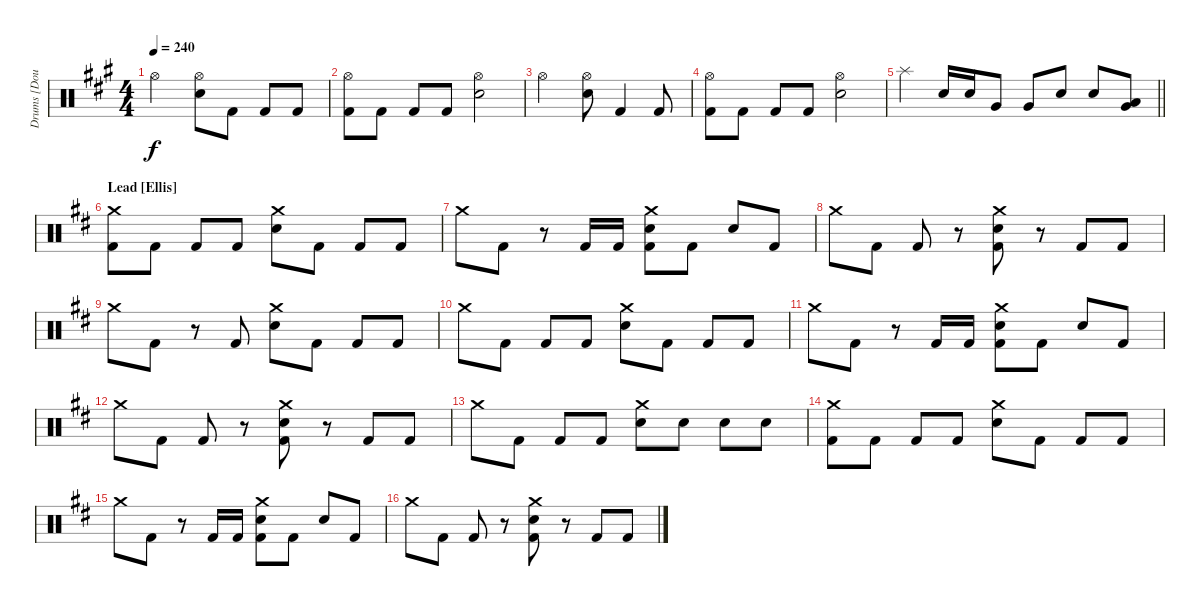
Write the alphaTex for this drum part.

\track ("Drums [Doug Anderson]" "Drums [Dou") {instrument percussion}
\staff {score}
\articulation defaults
\ts (4 4)
\tempo 240
\clef neutral
\ks f#minor "Hi-Hat (open)".2{dy f}
("Hi-Hat (open)" "Electric Snare (hit)").8 "Kick (hit) 2".8 "Kick (hit) 2".8 "Kick (hit) 2".8 |
("Hi-Hat (open)" "Kick (hit) 2").8 "Kick (hit) 2".8 "Kick (hit) 2".8 "Kick (hit) 2".8 ("Hi-Hat (open)" "Electric Snare (hit)").2 |
"Hi-Hat (open)".2 ("Hi-Hat (open)" "Electric Snare (hit)").8 "Kick (hit) 2".4 "Kick (hit) 2".8 |
("Hi-Hat (open)" "Kick (hit) 2").8 "Kick (hit) 2".8 "Kick (hit) 2".8 "Kick (hit) 2".8 ("Hi-Hat (open)" "Electric Snare (hit)").2 |
\barLineRight lightlight "Splash (hit)".4 "Electric Snare (hit)".16 "Electric Snare (hit)".16 "Very Low Tom (hit)".8 "Very Low Tom (hit)".8 "Electric Snare (hit)".8 "Electric Snare (hit)".8
("Low Tom (hit)" "Very Low Tom (hit)").8 |
\section ("" "Lead [Ellis]")
\ks bminor
("Crash medium (hit)" "Kick (hit) 2").8 "Kick (hit) 2".8 "Kick (hit) 2".8 "Kick (hit) 2".8 ("Crash medium (hit)" "Electric Snare (hit)").8 "Kick (hit) 2".8 "Kick (hit) 2".8 "Kick (hit) 2".8 |
"Crash medium (hit)".8 "Kick (hit) 2".8 r.8 "Kick (hit) 2".16 "Kick (hit) 2".16 ("Crash medium (hit)" "Electric Snare (hit)" "Kick (hit) 2").8 "Kick (hit) 2".8 "Electric Snare (hit)".8 "Kick (hit) 2".8 |
"Crash medium (hit)".8 "Kick (hit) 2".8 "Kick (hit) 2".8 r.8 ("Crash medium (hit)" "Electric Snare (hit)" "Kick (hit) 2").8 r.8 "Kick (hit) 2".8 "Kick (hit) 2".8 |
"Crash medium (hit)".8 "Kick (hit) 2".8 r.8 "Kick (hit) 2".8 ("Crash medium (hit)" "Electric Snare (hit)").8 "Kick (hit) 2".8 "Kick (hit) 2".8 "Kick (hit) 2".8 |
"Crash medium (hit)".8 "Kick (hit) 2".8 "Kick (hit) 2".8 "Kick (hit) 2".8 ("Crash medium (hit)" "Electric Snare (hit)").8 "Kick (hit) 2".8 "Kick (hit) 2".8 "Kick (hit) 2".8 |
"Crash medium (hit)".8 "Kick (hit) 2".8 r.8 "Kick (hit) 2".16 "Kick (hit) 2".16 ("Crash medium (hit)" "Electric Snare (hit)" "Kick (hit) 2").8 "Kick (hit) 2".8 "Electric Snare (hit)".8 "Kick (hit) 2".8 |
"Crash medium (hit)".8 "Kick (hit) 2".8 "Kick (hit) 2".8 r.8 ("Crash medium (hit)" "Electric Snare (hit)" "Kick (hit) 2").8 r.8 "Kick (hit) 2".8 "Kick (hit) 2".8 |
"Crash medium (hit)".8 "Kick (hit) 2".8 "Kick (hit) 2".8 "Kick (hit) 2".8 ("Crash medium (hit)" "Electric Snare (hit)").8 "Electric Snare (hit)".8 "Electric Snare (hit)".8 "Electric Snare (hit)".8 |
("Crash medium (hit)" "Kick (hit) 2").8 "Kick (hit) 2".8 "Kick (hit) 2".8 "Kick (hit) 2".8 ("Crash medium (hit)" "Electric Snare (hit)").8 "Kick (hit) 2".8 "Kick (hit) 2".8 "Kick (hit) 2".8 |
"Crash medium (hit)".8 "Kick (hit) 2".8 r.8 "Kick (hit) 2".16 "Kick (hit) 2".16 ("Crash medium (hit)" "Electric Snare (hit)" "Kick (hit) 2").8 "Kick (hit) 2".8 "Electric Snare (hit)".8 "Kick (hit) 2".8 |
"Crash medium (hit)".8 "Kick (hit) 2".8 "Kick (hit) 2".8 r.8 ("Crash medium (hit)" "Electric Snare (hit)" "Kick (hit) 2").8 r.8 "Kick (hit) 2".8 "Kick (hit) 2".8
